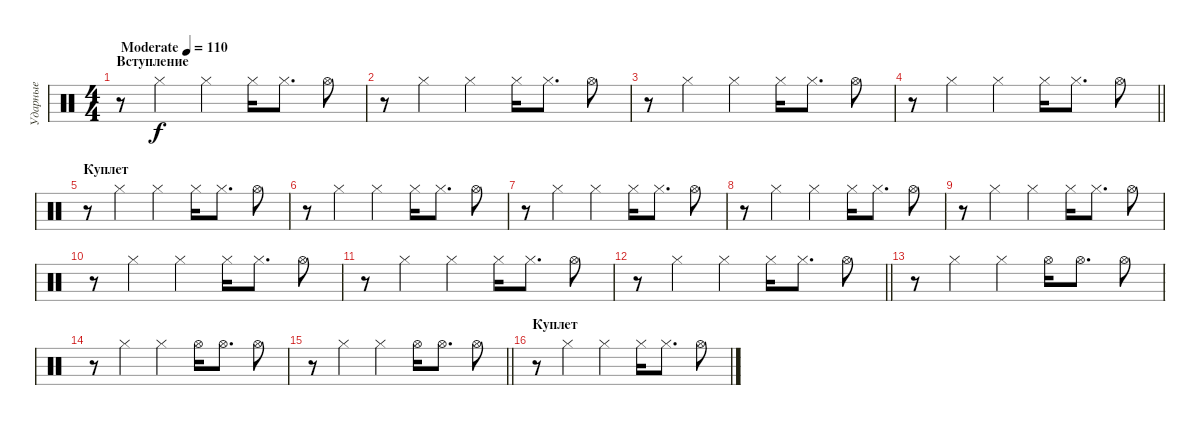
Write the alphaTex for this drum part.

\track ("Ударные" "Ударные") {instrument percussion}
\staff {score}
\articulation defaults
\ts (4 4)
\section ("" "Вступление")
\tempo (110 "Moderate")
\clef neutral
\ks c
r.8{dy f} "Hi-Hat (closed)".4 "Hi-Hat (closed)".4 "Hi-Hat (closed)".16 "Hi-Hat (closed)".8{d} "Hi-Hat (open)".8 |
r.8 "Hi-Hat (closed)".4 "Hi-Hat (closed)".4 "Hi-Hat (closed)".16 "Hi-Hat (closed)".8{d} "Hi-Hat (open)".8 |
r.8 "Hi-Hat (closed)".4 "Hi-Hat (closed)".4 "Hi-Hat (closed)".16 "Hi-Hat (closed)".8{d} "Hi-Hat (open)".8 |
\barLineRight lightlight
r.8 "Hi-Hat (closed)".4 "Hi-Hat (closed)".4 "Hi-Hat (closed)".16 "Hi-Hat (closed)".8{d} "Hi-Hat (open)".8 |
\section ("" "Куплет")
r.8 "Hi-Hat (closed)".4 "Hi-Hat (closed)".4 "Hi-Hat (closed)".16 "Hi-Hat (closed)".8{d} "Hi-Hat (open)".8 |
r.8 "Hi-Hat (closed)".4 "Hi-Hat (closed)".4 "Hi-Hat (closed)".16 "Hi-Hat (closed)".8{d} "Hi-Hat (open)".8 |
r.8 "Hi-Hat (closed)".4 "Hi-Hat (closed)".4 "Hi-Hat (closed)".16 "Hi-Hat (closed)".8{d} "Hi-Hat (open)".8 |
r.8 "Hi-Hat (closed)".4 "Hi-Hat (closed)".4 "Hi-Hat (closed)".16 "Hi-Hat (closed)".8{d} "Hi-Hat (open)".8 |
r.8 "Hi-Hat (closed)".4 "Hi-Hat (closed)".4 "Hi-Hat (closed)".16 "Hi-Hat (closed)".8{d} "Hi-Hat (open)".8 |
r.8 "Hi-Hat (closed)".4 "Hi-Hat (closed)".4 "Hi-Hat (closed)".16 "Hi-Hat (closed)".8{d} "Hi-Hat (open)".8 |
r.8 "Hi-Hat (closed)".4 "Hi-Hat (closed)".4 "Hi-Hat (closed)".16 "Hi-Hat (closed)".8{d} "Hi-Hat (open)".8 |
\barLineRight lightlight
r.8 "Hi-Hat (closed)".4 "Hi-Hat (closed)".4 "Hi-Hat (closed)".16 "Hi-Hat (closed)".8{d} "Hi-Hat (open)".8 |
\section ("" "")
r.8 "Hi-Hat (closed)".4 "Hi-Hat (closed)".4 "Hi-Hat (open)".16 "Hi-Hat (open)".8{d} "Hi-Hat (open)".8 |
r.8 "Hi-Hat (closed)".4 "Hi-Hat (closed)".4 "Hi-Hat (open)".16 "Hi-Hat (open)".8{d} "Hi-Hat (open)".8 |
\barLineRight lightlight
r.8 "Hi-Hat (closed)".4 "Hi-Hat (closed)".4 "Hi-Hat (open)".16 "Hi-Hat (open)".8{d} "Hi-Hat (open)".8 |
\section ("" "Куплет")
r.8 "Hi-Hat (closed)".4 "Hi-Hat (closed)".4 "Hi-Hat (closed)".16 "Hi-Hat (closed)".8{d} "Hi-Hat (open)".8
